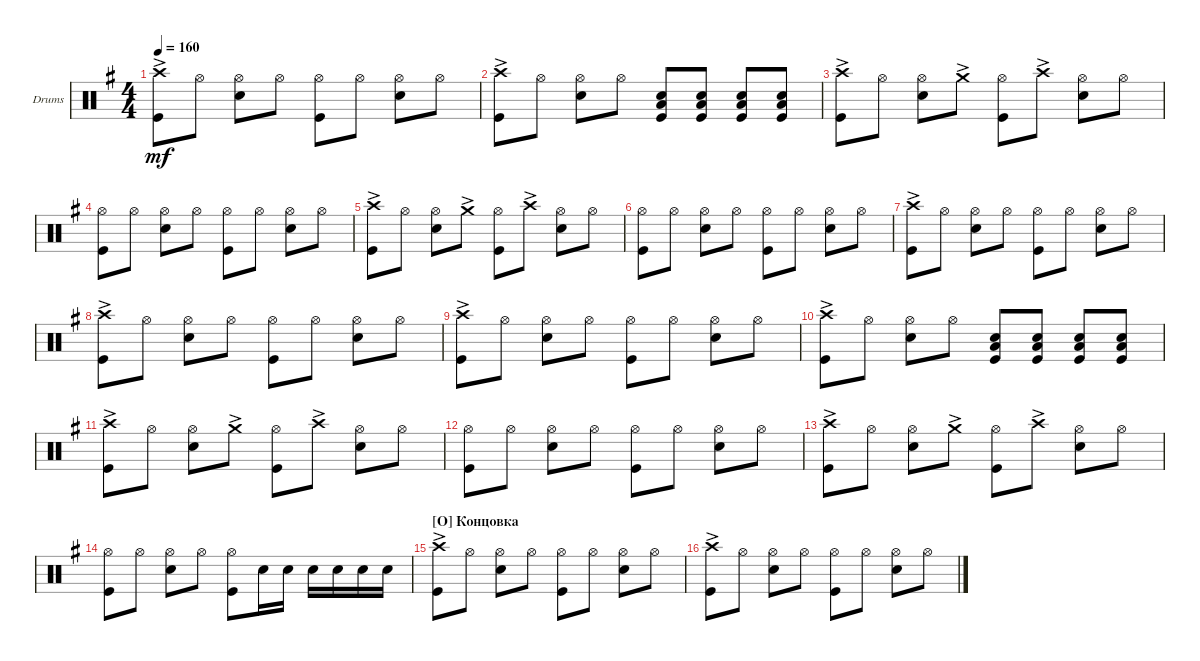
\defaultSystemsLayout 4
\bracketExtendMode groupsimilarinstruments
\firstSystemTrackNameOrientation horizontal
\otherSystemsTrackNameOrientation horizontal
\track ("Drumkit" "Drums") {instrument percussion}
\staff {score}
\articulation defaults
\ts (4 4)
\tempo 160
\clef neutral
\ks eminor
("Kick (hit)" "Crash high (hit)"{ac}).8{dy mf} "Hi-Hat (open)".8 ("Hi-Hat (open)" "Snare (hit) 2").8 "Hi-Hat (open)".8 ("Hi-Hat (open)" "Kick (hit)").8 "Hi-Hat (open)".8 ("Hi-Hat (open)" "Snare (hit) 2").8 "Hi-Hat (open)".8 |
("Kick (hit)" "Crash high (hit)"{ac}).8 "Hi-Hat (open)".8 ("Hi-Hat (open)" "Snare (hit) 2").8 "Hi-Hat (open)".8 ("Snare (hit) 2" "Low Tom (hit)" "Kick (hit)").8 ("Snare (hit) 2" "Low Tom (hit)" "Kick (hit)").8 ("Snare (hit) 2" "Low Tom (hit)" "Kick (hit)").8 ("Snare (hit) 2" "Low Tom (hit)" "Kick (hit)").8 |
("Kick (hit)" "Crash high (hit)"{ac}).8 "Hi-Hat (open)".8 ("Hi-Hat (open)" "Snare (hit) 2").8 "Crash medium (hit)"{ac}.8 ("Hi-Hat (open)" "Kick (hit)").8 "Crash high (hit)"{ac}.8 ("Snare (hit) 2" "Hi-Hat (open)").8 "Hi-Hat (open)".8 |
("Kick (hit)" "Hi-Hat (open)").8 "Hi-Hat (open)".8 ("Hi-Hat (open)" "Snare (hit) 2").8 "Hi-Hat (open)".8 ("Hi-Hat (open)" "Kick (hit)").8 "Hi-Hat (open)".8 ("Hi-Hat (open)" "Snare (hit) 2").8 "Hi-Hat (open)".8 |
("Kick (hit)" "Crash high (hit)"{ac}).8 "Hi-Hat (open)".8 ("Hi-Hat (open)" "Snare (hit) 2").8 "Crash medium (hit)"{ac}.8 ("Hi-Hat (open)" "Kick (hit)").8 "Crash high (hit)"{ac}.8 ("Snare (hit) 2" "Hi-Hat (open)").8 "Hi-Hat (open)".8 |
("Kick (hit)" "Hi-Hat (open)").8 "Hi-Hat (open)".8 ("Hi-Hat (open)" "Snare (hit) 2").8 "Hi-Hat (open)".8 ("Hi-Hat (open)" "Kick (hit)").8 "Hi-Hat (open)".8 ("Hi-Hat (open)" "Snare (hit) 2").8 "Hi-Hat (open)".8 |
("Kick (hit)" "Crash high (hit)"{ac}).8 "Hi-Hat (open)".8 ("Hi-Hat (open)" "Snare (hit) 2").8 "Hi-Hat (open)".8 ("Hi-Hat (open)" "Kick (hit)").8 "Hi-Hat (open)".8 ("Hi-Hat (open)" "Snare (hit) 2").8 "Hi-Hat (open)".8 |
("Kick (hit)" "Crash high (hit)"{ac}).8 "Hi-Hat (open)".8 ("Hi-Hat (open)" "Snare (hit) 2").8 "Hi-Hat (open)".8 ("Hi-Hat (open)" "Kick (hit)").8 "Hi-Hat (open)".8 ("Hi-Hat (open)" "Snare (hit) 2").8 "Hi-Hat (open)".8 |
("Kick (hit)" "Crash high (hit)"{ac}).8 "Hi-Hat (open)".8 ("Hi-Hat (open)" "Snare (hit) 2").8 "Hi-Hat (open)".8 ("Hi-Hat (open)" "Kick (hit)").8 "Hi-Hat (open)".8 ("Hi-Hat (open)" "Snare (hit) 2").8 "Hi-Hat (open)".8 |
("Kick (hit)" "Crash high (hit)"{ac}).8 "Hi-Hat (open)".8 ("Hi-Hat (open)" "Snare (hit) 2").8 "Hi-Hat (open)".8 ("Snare (hit) 2" "Low Tom (hit)" "Kick (hit)").8 ("Snare (hit) 2" "Low Tom (hit)" "Kick (hit)").8 ("Snare (hit) 2" "Low Tom (hit)" "Kick (hit)").8 ("Snare (hit) 2" "Low Tom (hit)" "Kick (hit)").8 |
("Kick (hit)" "Crash high (hit)"{ac}).8 "Hi-Hat (open)".8 ("Hi-Hat (open)" "Snare (hit) 2").8 "Crash medium (hit)"{ac}.8 ("Hi-Hat (open)" "Kick (hit)").8 "Crash high (hit)"{ac}.8 ("Snare (hit) 2" "Hi-Hat (open)").8 "Hi-Hat (open)".8 |
("Kick (hit)" "Hi-Hat (open)").8 "Hi-Hat (open)".8 ("Hi-Hat (open)" "Snare (hit) 2").8 "Hi-Hat (open)".8 ("Hi-Hat (open)" "Kick (hit)").8 "Hi-Hat (open)".8 ("Hi-Hat (open)" "Snare (hit) 2").8 "Hi-Hat (open)".8 |
("Kick (hit)" "Crash high (hit)"{ac}).8 "Hi-Hat (open)".8 ("Hi-Hat (open)" "Snare (hit) 2").8 "Crash medium (hit)"{ac}.8 ("Hi-Hat (open)" "Kick (hit)").8 "Crash high (hit)"{ac}.8 ("Snare (hit) 2" "Hi-Hat (open)").8 "Hi-Hat (open)".8 |
("Kick (hit)" "Hi-Hat (open)").8 "Hi-Hat (open)".8 ("Hi-Hat (open)" "Snare (hit) 2").8 "Hi-Hat (open)".8 ("Hi-Hat (open)" "Kick (hit)").8 "Snare (hit) 2".16 "Snare (hit) 2".16 "Snare (hit) 2".16 "Snare (hit) 2".16 "Snare (hit) 2".16 "Snare (hit) 2".16 |
\section ("O" "Концовка")
("Kick (hit)" "Crash high (hit)"{ac}).8 "Hi-Hat (open)".8 ("Hi-Hat (open)" "Snare (hit) 2").8 "Hi-Hat (open)".8 ("Hi-Hat (open)" "Kick (hit)").8 "Hi-Hat (open)".8 ("Hi-Hat (open)" "Snare (hit) 2").8 "Hi-Hat (open)".8 |
("Kick (hit)" "Crash high (hit)"{ac}).8 "Hi-Hat (open)".8 ("Hi-Hat (open)" "Snare (hit) 2").8 "Hi-Hat (open)".8 ("Hi-Hat (open)" "Kick (hit)").8 "Hi-Hat (open)".8 ("Hi-Hat (open)" "Snare (hit) 2").8 "Hi-Hat (open)".8
